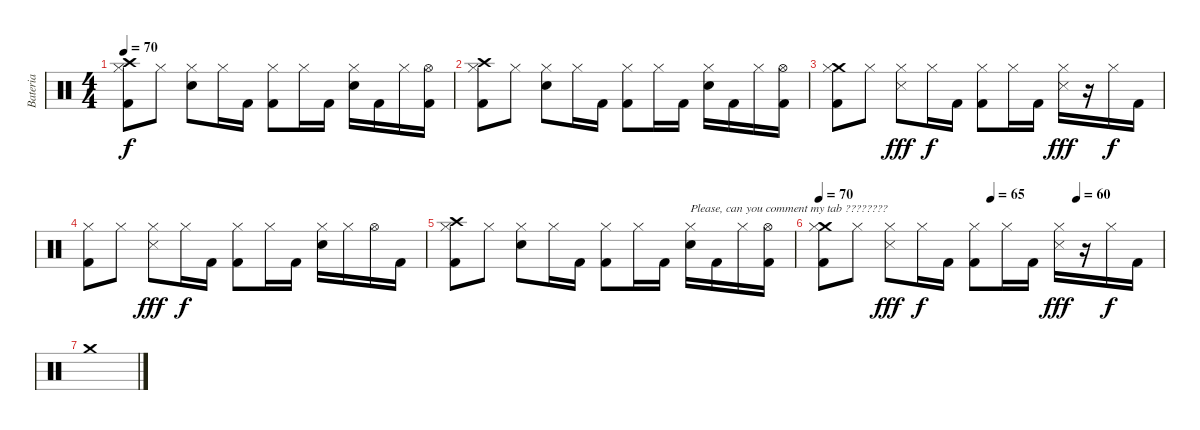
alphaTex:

\track ("Bateria" "Bateria") {instrument percussion}
\staff {score}
\articulation defaults
\ts (4 4)
\tempo 70
\clef neutral
\ks c
("Crash high (hit)" "Hi-Hat (closed)" "Kick (hit) 2").8{dy f} "Hi-Hat (closed)".8 ("Hi-Hat (closed)" "Snare (hit) 2").8 "Hi-Hat (closed)".16 "Kick (hit) 2".16 ("Hi-Hat (closed)" "Kick (hit) 2").8 "Hi-Hat (closed)".16 "Kick (hit) 2".16 ("Hi-Hat (closed)" "Snare (hit) 2").16 "Kick (hit) 2".16 "Hi-Hat (closed)".16 ("Hi-Hat (open)" "Kick (hit) 2").16 |
("Crash high (hit)" "Hi-Hat (closed)" "Kick (hit) 2").8 "Hi-Hat (closed)".8 ("Hi-Hat (closed)" "Snare (hit) 2").8 "Hi-Hat (closed)".16 "Kick (hit) 2".16 ("Hi-Hat (closed)" "Kick (hit) 2").8 "Hi-Hat (closed)".16 "Kick (hit) 2".16 ("Hi-Hat (closed)" "Snare (hit) 2").16 "Kick (hit) 2".16 "Hi-Hat (closed)".16 ("Hi-Hat (open)" "Kick (hit) 2").16 |
("Crash medium (hit)" "Hi-Hat (closed)" "Kick (hit) 2").8 "Hi-Hat (closed)".8 ("Hi-Hat (closed)" "Snare (side stick) 3").8{dy fff} "Hi-Hat (closed)".16{dy f} "Kick (hit) 2".16 ("Hi-Hat (closed)" "Kick (hit) 2").8 "Hi-Hat (closed)".16 "Kick (hit) 2".16 ("Hi-Hat (closed)" "Snare (side stick) 3").16{dy fff} r.16 "Hi-Hat (closed)".16{dy f} "Kick (hit) 2".16 |
("Hi-Hat (closed)" "Kick (hit) 2").8 "Hi-Hat (closed)".8 ("Hi-Hat (closed)" "Snare (side stick) 3").8{dy fff} "Hi-Hat (closed)".16{dy f} "Kick (hit) 2".16 ("Hi-Hat (closed)" "Kick (hit) 2").8 "Hi-Hat (closed)".16 "Kick (hit) 2".16 ("Hi-Hat (closed)" "Snare (hit) 2").16 "Hi-Hat (closed)".16 "Hi-Hat (open)".16 "Kick (hit) 2".16 |
("Crash high (hit)" "Hi-Hat (closed)" "Kick (hit) 2").8 "Hi-Hat (closed)".8 ("Hi-Hat (closed)" "Snare (hit) 2").8 "Hi-Hat (closed)".16 "Kick (hit) 2".16 ("Hi-Hat (closed)" "Kick (hit) 2").8 "Hi-Hat (closed)".16 "Kick (hit) 2".16 ("Hi-Hat (closed)" "Snare (hit) 2").16{txt "Please, can you comment my tab ????????"} "Kick (hit) 2".16 "Hi-Hat (closed)".16 ("Hi-Hat (open)" "Kick (hit) 2").16 |
\tempo 70
\tempo (65 0.5)
\tempo (60 0.75)
("Crash medium (hit)" "Hi-Hat (closed)" "Kick (hit) 2").8 "Hi-Hat (closed)".8 ("Hi-Hat (closed)" "Snare (side stick) 3").8{dy fff} "Hi-Hat (closed)".16{dy f} "Kick (hit) 2".16 ("Hi-Hat (closed)" "Kick (hit) 2").8 "Hi-Hat (closed)".16 "Kick (hit) 2".16 ("Hi-Hat (closed)" "Snare (side stick) 3").16{dy fff} r.16 "Hi-Hat (closed)".16{dy f} "Kick (hit) 2".16 |
"Crash medium (hit)".1
